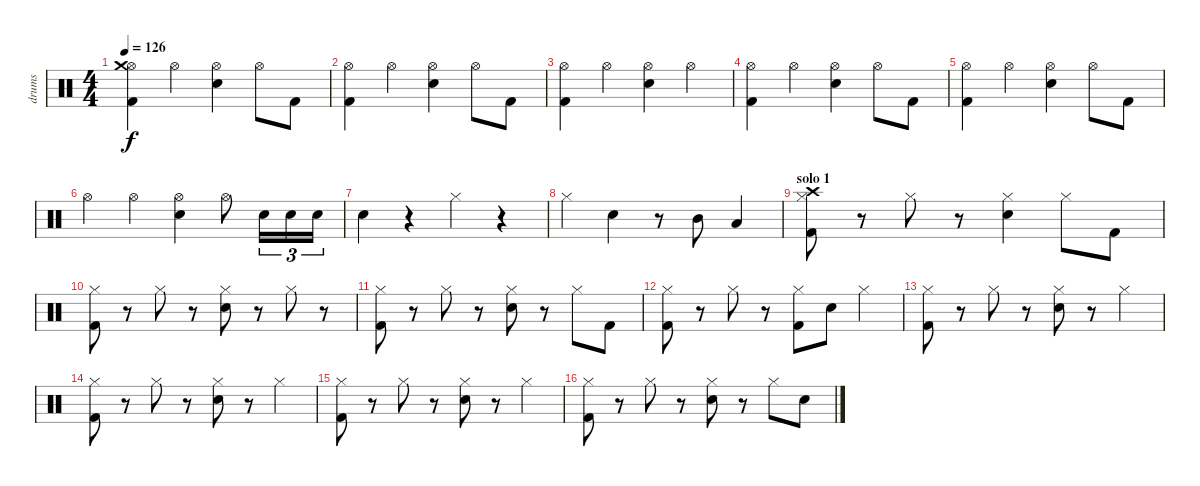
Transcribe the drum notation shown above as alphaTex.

\track ("drums" "drums") {instrument percussion}
\staff {score}
\articulation defaults
\ts (4 4)
\tempo 126
\clef neutral
\ks c
("Kick (hit) 2" "Hi-Hat (open)" "Crash medium (hit)").4{dy f} "Hi-Hat (open)".4 ("Electric Snare (hit)" "Hi-Hat (open)").4 "Hi-Hat (open)".8 "Kick (hit) 2".8 |
("Kick (hit) 2" "Hi-Hat (open)").4 "Hi-Hat (open)".4 ("Electric Snare (hit)" "Hi-Hat (open)").4 "Hi-Hat (open)".8 "Kick (hit) 2".8 |
("Kick (hit) 2" "Hi-Hat (open)").4 "Hi-Hat (open)".4 ("Electric Snare (hit)" "Hi-Hat (open)").4 "Hi-Hat (open)".4 |
("Kick (hit) 2" "Hi-Hat (open)").4 "Hi-Hat (open)".4 ("Electric Snare (hit)" "Hi-Hat (open)").4 "Hi-Hat (open)".8 "Kick (hit) 2".8 |
("Kick (hit) 2" "Hi-Hat (open)").4 "Hi-Hat (open)".4 ("Electric Snare (hit)" "Hi-Hat (open)").4 "Hi-Hat (open)".8 "Kick (hit) 2".8 |
"Hi-Hat (open)".4 "Hi-Hat (open)".4 ("Electric Snare (hit)" "Hi-Hat (open)").4 "Hi-Hat (open)".8 "Electric Snare (hit)".16{tu (3 2)} "Electric Snare (hit)".16{tu (3 2)} "Electric Snare (hit)".16{tu (3 2)} |
"Electric Snare (hit)".4 r.4 "Hi-Hat (closed)".4 r.4 |
"Hi-Hat (closed)".4 "Electric Snare (hit)".4 r.8 "Mid Tom (hit)".8 "Low Tom (hit)".4 |
\section ("" "solo 1")
("Kick (hit) 2" "Hi-Hat (closed)" "Crash high (hit)").8 r.8 "Hi-Hat (closed)".8 r.8 ("Electric Snare (hit)" "Hi-Hat (closed)").4 "Hi-Hat (closed)".8 "Kick (hit) 2".8 |
("Kick (hit) 2" "Hi-Hat (closed)").8 r.8 "Hi-Hat (closed)".8 r.8 ("Electric Snare (hit)" "Hi-Hat (closed)").8 r.8 "Hi-Hat (closed)".8 r.8 |
("Kick (hit) 2" "Hi-Hat (closed)").8 r.8 "Hi-Hat (closed)".8 r.8 ("Electric Snare (hit)" "Hi-Hat (closed)").8 r.8 "Hi-Hat (closed)".8 "Kick (hit) 2".8 |
("Kick (hit) 2" "Hi-Hat (closed)").8 r.8 "Hi-Hat (closed)".8 r.8 ("Kick (hit) 2" "Hi-Hat (closed)").8 "Electric Snare (hit)".8 "Hi-Hat (closed)".4 |
("Kick (hit) 2" "Hi-Hat (closed)").8 r.8 "Hi-Hat (closed)".8 r.8 ("Electric Snare (hit)" "Hi-Hat (closed)").8 r.8 "Hi-Hat (closed)".4 |
("Kick (hit) 2" "Hi-Hat (closed)").8 r.8 "Hi-Hat (closed)".8 r.8 ("Electric Snare (hit)" "Hi-Hat (closed)").8 r.8 "Hi-Hat (closed)".4 |
("Kick (hit) 2" "Hi-Hat (closed)").8 r.8 "Hi-Hat (closed)".8 r.8 ("Electric Snare (hit)" "Hi-Hat (closed)").8 r.8 "Hi-Hat (closed)".4 |
("Kick (hit) 2" "Hi-Hat (closed)").8 r.8 "Hi-Hat (closed)".8 r.8 ("Electric Snare (hit)" "Hi-Hat (closed)").8 r.8 "Hi-Hat (closed)".8 "Electric Snare (hit)".8
